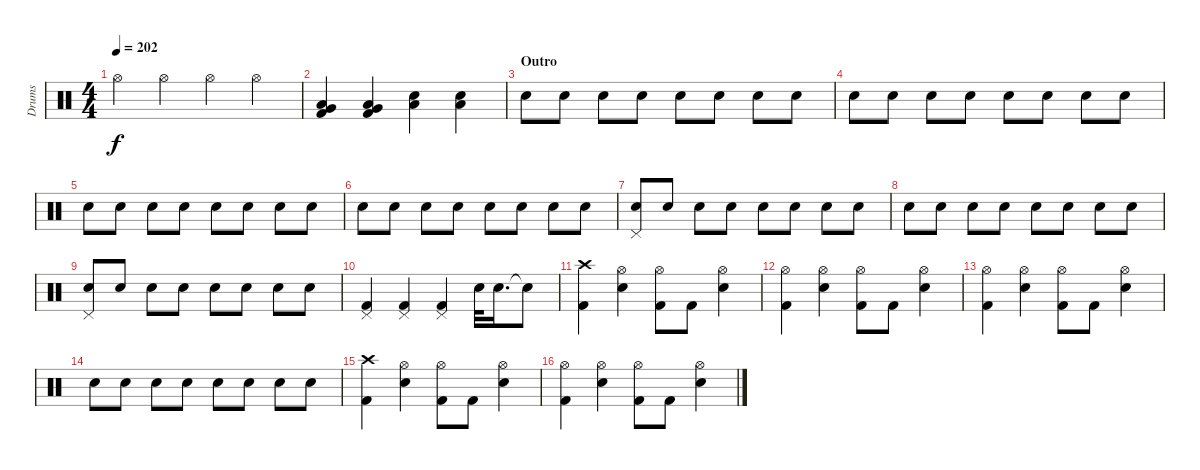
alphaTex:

\track ("Drums" "Drums") {instrument percussion}
\staff {score}
\articulation defaults
\ts (4 4)
\tempo 202
\clef neutral
\ks c "Hi-Hat (open)".4{dy f} "Hi-Hat (open)".4 "Hi-Hat (open)".4 "Hi-Hat (open)".4
|
("Very Low Tom (hit)" "Low Floor Tom (hit)" "Kick (hit) 2").4 ("Very Low Tom (hit)" "Low Floor Tom (hit)" "Kick (hit) 2").4 ("Low Floor Tom (hit)" "Electric Snare (hit)").4 ("Low Floor Tom (hit)" "Electric Snare (hit)").4 |
\section ("" "Outro")
"Electric Snare (hit)".8 "Electric Snare (hit)".8 "Electric Snare (hit)".8 "Electric Snare (hit)".8 "Electric Snare (hit)".8 "Electric Snare (hit)".8 "Electric Snare (hit)".8 "Electric Snare (hit)".8 |
"Electric Snare (hit)".8 "Electric Snare (hit)".8 "Electric Snare (hit)".8 "Electric Snare (hit)".8 "Electric Snare (hit)".8 "Electric Snare (hit)".8 "Electric Snare (hit)".8 "Electric Snare (hit)".8 |
"Electric Snare (hit)".8 "Electric Snare (hit)".8 "Electric Snare (hit)".8 "Electric Snare (hit)".8 "Electric Snare (hit)".8 "Electric Snare (hit)".8 "Electric Snare (hit)".8 "Electric Snare (hit)".8 |
"Electric Snare (hit)".8 "Electric Snare (hit)".8 "Electric Snare (hit)".8 "Electric Snare (hit)".8 "Electric Snare (hit)".8 "Electric Snare (hit)".8 "Electric Snare (hit)".8 "Electric Snare (hit)".8 |
("Pedal Hi-Hat (hit)" "Electric Snare (hit)").8 "Electric Snare (hit)".8 "Electric Snare (hit)".8 "Electric Snare (hit)".8 "Electric Snare (hit)".8 "Electric Snare (hit)".8 "Electric Snare (hit)".8 "Electric Snare (hit)".8 |
"Electric Snare (hit)".8 "Electric Snare (hit)".8 "Electric Snare (hit)".8 "Electric Snare (hit)".8 "Electric Snare (hit)".8 "Electric Snare (hit)".8 "Electric Snare (hit)".8 "Electric Snare (hit)".8 |
("Pedal Hi-Hat (hit)" "Electric Snare (hit)").8 "Electric Snare (hit)".8 "Electric Snare (hit)".8 "Electric Snare (hit)".8 "Electric Snare (hit)".8 "Electric Snare (hit)".8 "Electric Snare (hit)".8 "Electric Snare (hit)".8 |
("Pedal Hi-Hat (hit)" "Kick (hit) 2").4 ("Pedal Hi-Hat (hit)" "Kick (hit) 2").4 ("Pedal Hi-Hat (hit)" "Kick (hit) 2").4 "Electric Snare (hit)".32 "Electric Snare (hit)".16{d} "Electric Snare (hit)"{t}.8 |
("Crash high (hit)" "Kick (hit) 2").4 ("Hi-Hat (open)" "Electric Snare (hit)").4 ("Hi-Hat (open)" "Kick (hit) 2").8 "Kick (hit) 2".8 ("Hi-Hat (open)" "Electric Snare (hit)").4 |
("Hi-Hat (open)" "Kick (hit) 2").4 ("Hi-Hat (open)" "Electric Snare (hit)").4 ("Hi-Hat (open)" "Kick (hit) 2").8 "Kick (hit) 2".8 ("Hi-Hat (open)" "Electric Snare (hit)").4 |
("Hi-Hat (open)" "Kick (hit) 2").4 ("Hi-Hat (open)" "Electric Snare (hit)").4 ("Hi-Hat (open)" "Kick (hit) 2").8 "Kick (hit) 2".8 ("Hi-Hat (open)" "Electric Snare (hit)").4 |
"Electric Snare (hit)".8 "Electric Snare (hit)".8 "Electric Snare (hit)".8 "Electric Snare (hit)".8 "Electric Snare (hit)".8 "Electric Snare (hit)".8 "Electric Snare (hit)".8 "Electric Snare (hit)".8 |
("Crash high (hit)" "Kick (hit) 2").4 ("Hi-Hat (open)" "Electric Snare (hit)").4 ("Hi-Hat (open)" "Kick (hit) 2").8 "Kick (hit) 2".8 ("Hi-Hat (open)" "Electric Snare (hit)").4 |
("Hi-Hat (open)" "Kick (hit) 2").4 ("Hi-Hat (open)" "Electric Snare (hit)").4 ("Hi-Hat (open)" "Kick (hit) 2").8 "Kick (hit) 2".8 ("Hi-Hat (open)" "Electric Snare (hit)").4
